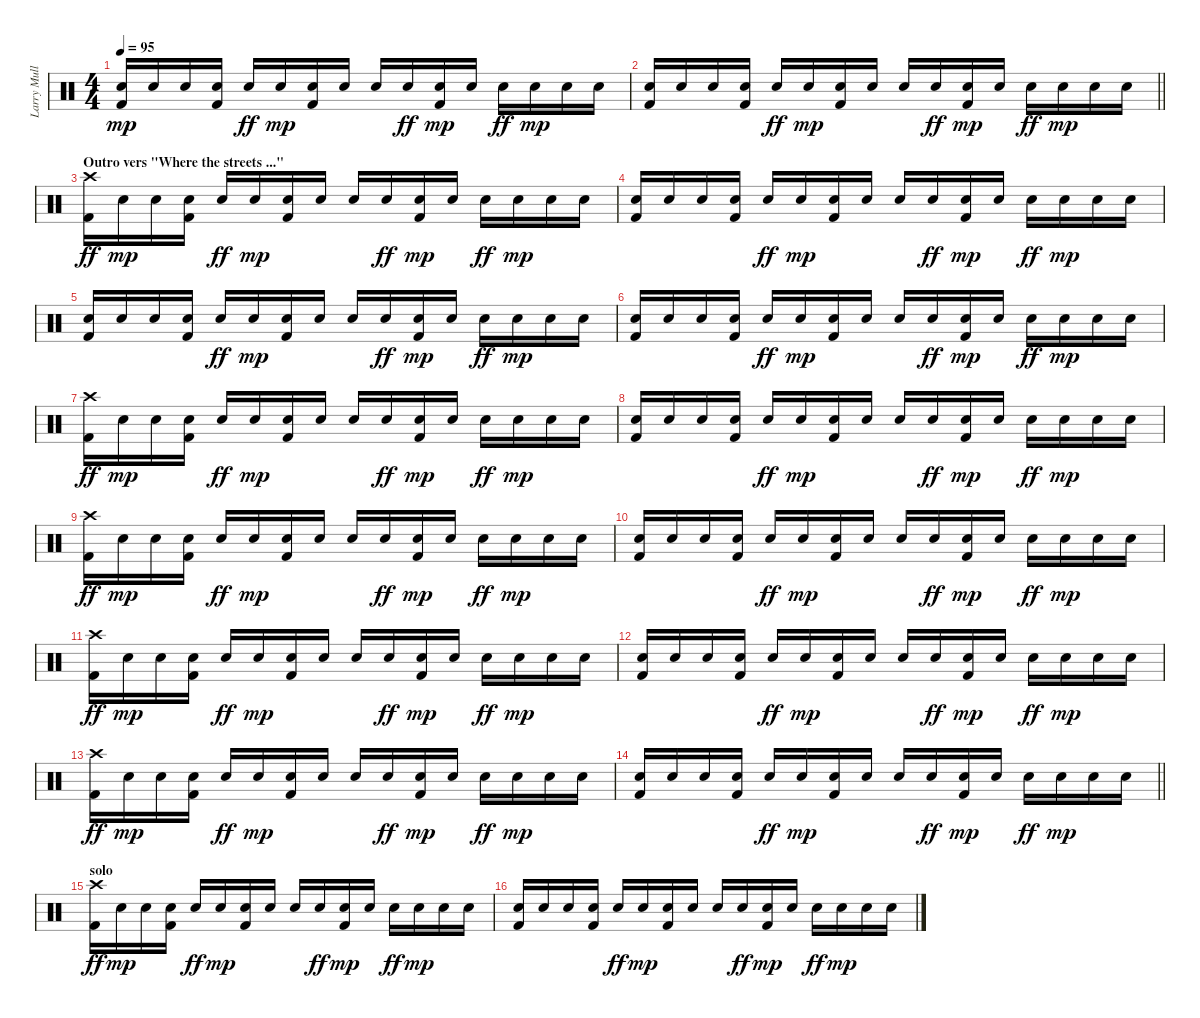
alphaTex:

\track ("Larry Mullen Jr" "Larry Mull") {instrument percussion}
\staff {score}
\articulation defaults
\ts (4 4)
\tempo 95
\clef neutral
\ks c
("Snare (hit) 2" "Kick (hit) 2").16{dy mp} "Snare (hit) 2".16 "Snare (hit) 2".16 ("Snare (hit) 2" "Kick (hit) 2").16 "Snare (hit) 2".16{dy ff} "Snare (hit) 2".16{dy mp} ("Snare (hit) 2" "Kick (hit) 2").16 "Snare (hit) 2".16 "Snare (hit) 2".16 "Snare (hit) 2".16{dy ff} ("Snare (hit) 2" "Kick (hit) 2").16{dy mp} "Snare (hit) 2".16 "Snare (hit) 2".16{dy ff} "Snare (hit) 2".16{dy mp} "Snare (hit) 2".16 "Snare (hit) 2".16 |
\barLineRight lightlight
("Snare (hit) 2" "Kick (hit) 2").16 "Snare (hit) 2".16 "Snare (hit) 2".16 ("Snare (hit) 2" "Kick (hit) 2").16 "Snare (hit) 2".16{dy ff} "Snare (hit) 2".16{dy mp} ("Snare (hit) 2" "Kick (hit) 2").16 "Snare (hit) 2".16 "Snare (hit) 2".16 "Snare (hit) 2".16{dy ff} ("Snare (hit) 2" "Kick (hit) 2").16{dy mp} "Snare (hit) 2".16 "Snare (hit) 2".16{dy ff} "Snare (hit) 2".16{dy mp} "Snare (hit) 2".16 "Snare (hit) 2".16 |
\section ("" "Outro vers \"Where the streets ...\"")
("Crash high (hit)" "Kick (hit) 2").16{dy ff} "Snare (hit) 2".16{dy mp} "Snare (hit) 2".16 ("Snare (hit) 2" "Kick (hit) 2").16 "Snare (hit) 2".16{dy ff} "Snare (hit) 2".16{dy mp} ("Snare (hit) 2" "Kick (hit) 2").16 "Snare (hit) 2".16 "Snare (hit) 2".16 "Snare (hit) 2".16{dy ff} ("Snare (hit) 2" "Kick (hit) 2").16{dy mp} "Snare (hit) 2".16 "Snare (hit) 2".16{dy ff} "Snare (hit) 2".16{dy mp} "Snare (hit) 2".16 "Snare (hit) 2".16 |
("Snare (hit) 2" "Kick (hit) 2").16 "Snare (hit) 2".16 "Snare (hit) 2".16 ("Snare (hit) 2" "Kick (hit) 2").16 "Snare (hit) 2".16{dy ff} "Snare (hit) 2".16{dy mp} ("Snare (hit) 2" "Kick (hit) 2").16 "Snare (hit) 2".16 "Snare (hit) 2".16 "Snare (hit) 2".16{dy ff} ("Snare (hit) 2" "Kick (hit) 2").16{dy mp} "Snare (hit) 2".16 "Snare (hit) 2".16{dy ff} "Snare (hit) 2".16{dy mp} "Snare (hit) 2".16 "Snare (hit) 2".16 |
("Snare (hit) 2" "Kick (hit) 2").16 "Snare (hit) 2".16 "Snare (hit) 2".16 ("Snare (hit) 2" "Kick (hit) 2").16 "Snare (hit) 2".16{dy ff} "Snare (hit) 2".16{dy mp} ("Snare (hit) 2" "Kick (hit) 2").16 "Snare (hit) 2".16 "Snare (hit) 2".16 "Snare (hit) 2".16{dy ff} ("Snare (hit) 2" "Kick (hit) 2").16{dy mp} "Snare (hit) 2".16 "Snare (hit) 2".16{dy ff} "Snare (hit) 2".16{dy mp} "Snare (hit) 2".16 "Snare (hit) 2".16 |
("Snare (hit) 2" "Kick (hit) 2").16 "Snare (hit) 2".16 "Snare (hit) 2".16 ("Snare (hit) 2" "Kick (hit) 2").16 "Snare (hit) 2".16{dy ff} "Snare (hit) 2".16{dy mp} ("Snare (hit) 2" "Kick (hit) 2").16 "Snare (hit) 2".16 "Snare (hit) 2".16 "Snare (hit) 2".16{dy ff} ("Snare (hit) 2" "Kick (hit) 2").16{dy mp} "Snare (hit) 2".16 "Snare (hit) 2".16{dy ff} "Snare (hit) 2".16{dy mp} "Snare (hit) 2".16 "Snare (hit) 2".16 |
("Crash high (hit)" "Kick (hit) 2").16{dy ff} "Snare (hit) 2".16{dy mp} "Snare (hit) 2".16 ("Snare (hit) 2" "Kick (hit) 2").16 "Snare (hit) 2".16{dy ff} "Snare (hit) 2".16{dy mp} ("Snare (hit) 2" "Kick (hit) 2").16 "Snare (hit) 2".16 "Snare (hit) 2".16 "Snare (hit) 2".16{dy ff} ("Snare (hit) 2" "Kick (hit) 2").16{dy mp} "Snare (hit) 2".16 "Snare (hit) 2".16{dy ff} "Snare (hit) 2".16{dy mp} "Snare (hit) 2".16 "Snare (hit) 2".16 |
("Snare (hit) 2" "Kick (hit) 2").16 "Snare (hit) 2".16 "Snare (hit) 2".16 ("Snare (hit) 2" "Kick (hit) 2").16 "Snare (hit) 2".16{dy ff} "Snare (hit) 2".16{dy mp} ("Snare (hit) 2" "Kick (hit) 2").16 "Snare (hit) 2".16 "Snare (hit) 2".16 "Snare (hit) 2".16{dy ff} ("Snare (hit) 2" "Kick (hit) 2").16{dy mp} "Snare (hit) 2".16 "Snare (hit) 2".16{dy ff} "Snare (hit) 2".16{dy mp} "Snare (hit) 2".16 "Snare (hit) 2".16 |
("Crash high (hit)" "Kick (hit) 2").16{dy ff} "Snare (hit) 2".16{dy mp} "Snare (hit) 2".16 ("Snare (hit) 2" "Kick (hit) 2").16 "Snare (hit) 2".16{dy ff} "Snare (hit) 2".16{dy mp} ("Snare (hit) 2" "Kick (hit) 2").16 "Snare (hit) 2".16 "Snare (hit) 2".16 "Snare (hit) 2".16{dy ff} ("Snare (hit) 2" "Kick (hit) 2").16{dy mp} "Snare (hit) 2".16 "Snare (hit) 2".16{dy ff} "Snare (hit) 2".16{dy mp} "Snare (hit) 2".16 "Snare (hit) 2".16 |
("Snare (hit) 2" "Kick (hit) 2").16 "Snare (hit) 2".16 "Snare (hit) 2".16 ("Snare (hit) 2" "Kick (hit) 2").16 "Snare (hit) 2".16{dy ff} "Snare (hit) 2".16{dy mp} ("Snare (hit) 2" "Kick (hit) 2").16 "Snare (hit) 2".16 "Snare (hit) 2".16 "Snare (hit) 2".16{dy ff} ("Snare (hit) 2" "Kick (hit) 2").16{dy mp} "Snare (hit) 2".16 "Snare (hit) 2".16{dy ff} "Snare (hit) 2".16{dy mp} "Snare (hit) 2".16 "Snare (hit) 2".16 |
("Crash high (hit)" "Kick (hit) 2").16{dy ff} "Snare (hit) 2".16{dy mp} "Snare (hit) 2".16 ("Snare (hit) 2" "Kick (hit) 2").16 "Snare (hit) 2".16{dy ff} "Snare (hit) 2".16{dy mp} ("Snare (hit) 2" "Kick (hit) 2").16 "Snare (hit) 2".16 "Snare (hit) 2".16 "Snare (hit) 2".16{dy ff} ("Snare (hit) 2" "Kick (hit) 2").16{dy mp} "Snare (hit) 2".16 "Snare (hit) 2".16{dy ff} "Snare (hit) 2".16{dy mp} "Snare (hit) 2".16 "Snare (hit) 2".16 |
("Snare (hit) 2" "Kick (hit) 2").16 "Snare (hit) 2".16 "Snare (hit) 2".16 ("Snare (hit) 2" "Kick (hit) 2").16 "Snare (hit) 2".16{dy ff} "Snare (hit) 2".16{dy mp} ("Snare (hit) 2" "Kick (hit) 2").16 "Snare (hit) 2".16 "Snare (hit) 2".16 "Snare (hit) 2".16{dy ff} ("Snare (hit) 2" "Kick (hit) 2").16{dy mp} "Snare (hit) 2".16 "Snare (hit) 2".16{dy ff} "Snare (hit) 2".16{dy mp} "Snare (hit) 2".16 "Snare (hit) 2".16 |
("Crash high (hit)" "Kick (hit) 2").16{dy ff} "Snare (hit) 2".16{dy mp} "Snare (hit) 2".16 ("Snare (hit) 2" "Kick (hit) 2").16 "Snare (hit) 2".16{dy ff} "Snare (hit) 2".16{dy mp} ("Snare (hit) 2" "Kick (hit) 2").16 "Snare (hit) 2".16 "Snare (hit) 2".16 "Snare (hit) 2".16{dy ff} ("Snare (hit) 2" "Kick (hit) 2").16{dy mp} "Snare (hit) 2".16 "Snare (hit) 2".16{dy ff} "Snare (hit) 2".16{dy mp} "Snare (hit) 2".16 "Snare (hit) 2".16 |
\barLineRight lightlight
("Snare (hit) 2" "Kick (hit) 2").16 "Snare (hit) 2".16 "Snare (hit) 2".16 ("Snare (hit) 2" "Kick (hit) 2").16 "Snare (hit) 2".16{dy ff} "Snare (hit) 2".16{dy mp} ("Snare (hit) 2" "Kick (hit) 2").16 "Snare (hit) 2".16 "Snare (hit) 2".16 "Snare (hit) 2".16{dy ff} ("Snare (hit) 2" "Kick (hit) 2").16{dy mp} "Snare (hit) 2".16 "Snare (hit) 2".16{dy ff} "Snare (hit) 2".16{dy mp} "Snare (hit) 2".16 "Snare (hit) 2".16 |
\section ("" "solo")
("Crash high (hit)" "Kick (hit) 2").16{dy ff} "Snare (hit) 2".16{dy mp} "Snare (hit) 2".16 ("Snare (hit) 2" "Kick (hit) 2").16 "Snare (hit) 2".16{dy ff} "Snare (hit) 2".16{dy mp} ("Snare (hit) 2" "Kick (hit) 2").16 "Snare (hit) 2".16 "Snare (hit) 2".16 "Snare (hit) 2".16{dy ff} ("Snare (hit) 2" "Kick (hit) 2").16{dy mp} "Snare (hit) 2".16 "Snare (hit) 2".16{dy ff} "Snare (hit) 2".16{dy mp} "Snare (hit) 2".16 "Snare (hit) 2".16 |
("Snare (hit) 2" "Kick (hit) 2").16 "Snare (hit) 2".16 "Snare (hit) 2".16 ("Snare (hit) 2" "Kick (hit) 2").16 "Snare (hit) 2".16{dy ff} "Snare (hit) 2".16{dy mp} ("Snare (hit) 2" "Kick (hit) 2").16 "Snare (hit) 2".16 "Snare (hit) 2".16 "Snare (hit) 2".16{dy ff} ("Snare (hit) 2" "Kick (hit) 2").16{dy mp} "Snare (hit) 2".16 "Snare (hit) 2".16{dy ff} "Snare (hit) 2".16{dy mp} "Snare (hit) 2".16 "Snare (hit) 2".16
